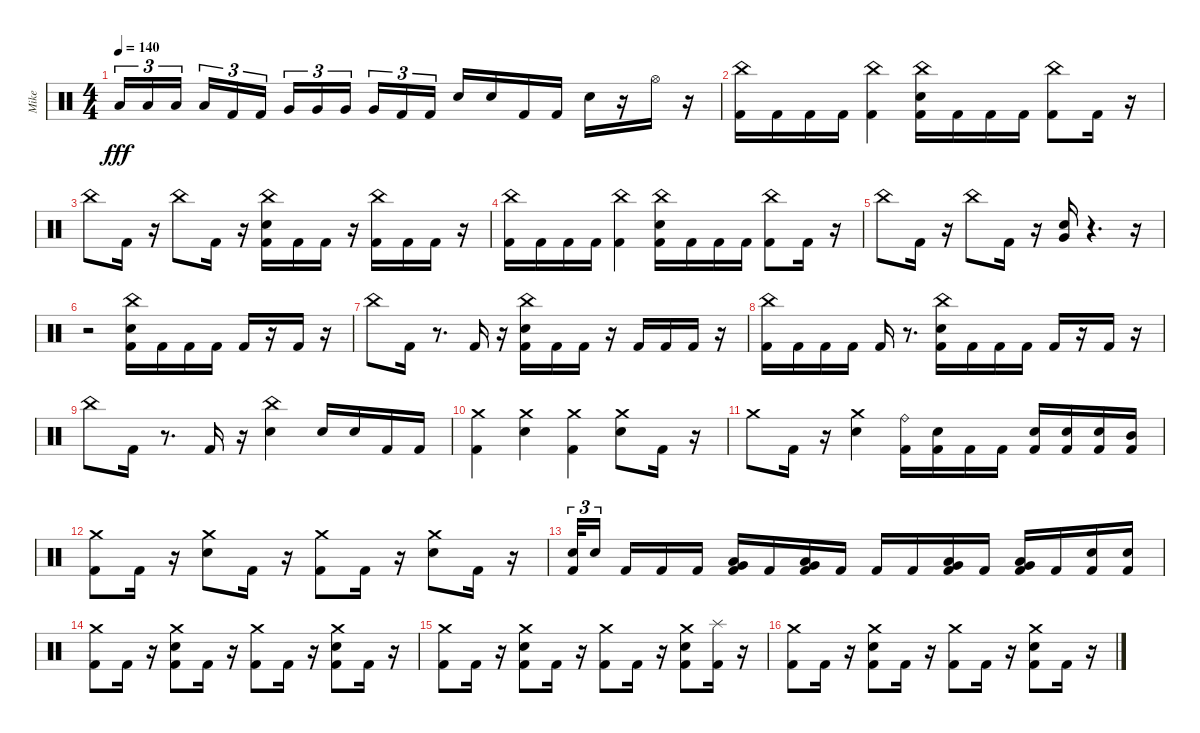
\track ("Mike" "Mike") {instrument percussion}
\staff {score}
\articulation defaults
\ts (4 4)
\tempo 140
\clef neutral
\ks c "Low Tom (hit)".16{tu (3 2) dy fff} "Low Tom (hit)".16{tu (3 2)} "Low Tom (hit)".16{tu (3 2) beam splitsecondary} "Low Tom (hit)".16{tu (3 2)} "Kick (hit) 2".16{tu (3 2)} "Kick (hit) 2".16{tu (3 2)} "Very Low Tom (hit)".16{tu (3 2)} "Very Low Tom (hit)".16{tu (3 2)} "Very Low Tom (hit)".16{tu (3 2) beam splitsecondary} "Very Low Tom (hit)".16{tu (3 2)} "Kick (hit) 2".16{tu (3 2)} "Kick (hit) 2".16{tu (3 2)} "Electric Snare (hit)".16 "Electric Snare (hit)".16 "Kick (hit) 2".16 "Kick (hit) 2".16 "Electric Snare (hit)".16
r.16 "Hi-Hat (open)".16 r.16 |
("Kick (hit) 2" "China (hit)").16 "Kick (hit) 2".16 "Kick (hit) 2".16 "Kick (hit) 2".16 ("Kick (hit) 2" "China (hit)").4 ("Kick (hit) 2" "Electric Snare (hit)" "China (hit)").16 "Kick (hit) 2".16 "Kick (hit) 2".16 "Kick (hit) 2".16 ("Kick (hit) 2" "China (hit)").8 "Kick (hit) 2".16 r.16 |
"China (hit)".8 "Kick (hit) 2".16 r.16 "China (hit)".8 "Kick (hit) 2".16 r.16 ("Kick (hit) 2" "Electric Snare (hit)" "China (hit)").16 "Kick (hit) 2".16 "Kick (hit) 2".16 r.16 ("Kick (hit) 2" "China (hit)").16 "Kick (hit) 2".16 "Kick (hit) 2".16 r.16 |
("Kick (hit) 2" "China (hit)").16 "Kick (hit) 2".16 "Kick (hit) 2".16 "Kick (hit) 2".16 ("Kick (hit) 2" "China (hit)").4 ("Kick (hit) 2" "Electric Snare (hit)" "China (hit)").16 "Kick (hit) 2".16 "Kick (hit) 2".16 "Kick (hit) 2".16 ("Kick (hit) 2" "China (hit)").8 "Kick (hit) 2".16 r.16 |
"China (hit)".8 "Kick (hit) 2".16 r.16 "China (hit)".8 "Kick (hit) 2".16 r.16 ("Electric Snare (hit)" "Very Low Tom (hit)").16 r.4{d} r.16 |
r.2 ("Kick (hit) 2" "Electric Snare (hit)" "China (hit)").16 "Kick (hit) 2".16 "Kick (hit) 2".16 "Kick (hit) 2".16 "Kick (hit) 2".16 r.16 "Kick (hit) 2".16 r.16 |
"China (hit)".8 "Kick (hit) 2".16 r.8{d} "Kick (hit) 2".16 r.16 ("Kick (hit) 2" "Electric Snare (hit)" "China (hit)").16 "Kick (hit) 2".16 "Kick (hit) 2".16 r.16 "Kick (hit) 2".16 "Kick (hit) 2".16 "Kick (hit) 2".16 r.16 |
("Kick (hit) 2" "China (hit)").16 "Kick (hit) 2".16 "Kick (hit) 2".16 "Kick (hit) 2".16 "Kick (hit) 2".16 r.8{d} ("Kick (hit) 2" "Electric Snare (hit)" "China (hit)").16 "Kick (hit) 2".16 "Kick (hit) 2".16 "Kick (hit) 2".16 "Kick (hit) 2".16 r.16 "Kick (hit) 2".16 r.16 |
"China (hit)".8 "Kick (hit) 2".16 r.8{d} "Kick (hit) 2".16 r.16 ("Electric Snare (hit)" "China (hit)").4 "Electric Snare (hit)".16 "Electric Snare (hit)".16 "Kick (hit) 2".16 "Kick (hit) 2".16 |
("Kick (hit) 2" "Crash medium (hit)").4 ("Electric Snare (hit)" "Crash medium (hit)").4 ("Kick (hit) 2" "Crash medium (hit)").4 ("Electric Snare (hit)" "Crash medium (hit)").8 "Kick (hit) 2".16 r.16 |
"Crash medium (hit)".8 "Kick (hit) 2".16 r.16 ("Electric Snare (hit)" "Crash medium (hit)").4 ("Kick (hit) 2" "Ride (bell)").16 ("Kick (hit) 2" "Electric Snare (hit)").16 "Kick (hit) 2".16 "Kick (hit) 2".16 ("Kick (hit) 2" "Electric Snare (hit)").16 ("Kick (hit) 2" "Electric Snare (hit)").16 ("Kick (hit) 2" "Electric Snare (hit)").16 ("Kick (hit) 2" "Mid Tom (hit)").16 |
("Kick (hit) 2" "Crash medium (hit)").8 "Kick (hit) 2".16 r.16 ("Electric Snare (hit)" "Crash medium (hit)").8 "Kick (hit) 2".16 r.16 ("Kick (hit) 2" "Crash medium (hit)").8 "Kick (hit) 2".16 r.16 ("Electric Snare (hit)" "Crash medium (hit)").8 "Kick (hit) 2".16 r.16 |
("Kick (hit) 2" "Electric Snare (hit)").32{tu (3 2)} "Electric Snare (hit)".16{tu (3 2) beam splitsecondary} "Kick (hit) 2".16 "Kick (hit) 2".16 "Kick (hit) 2".16 ("Kick (hit) 2" "Low Tom (hit)" "Very Low Tom (hit)").16 "Kick (hit) 2".16 ("Kick (hit) 2" "Low Tom (hit)" "Very Low Tom (hit)").16 "Kick (hit) 2".16 "Kick (hit) 2".16 "Kick (hit) 2".16 ("Kick (hit) 2" "Low Tom (hit)" "Very Low Tom (hit)").16 "Kick (hit) 2".16 ("Kick (hit) 2" "Low Tom (hit)" "Very Low Tom (hit)").16 "Kick (hit) 2".16 ("Kick (hit) 2" "Electric Snare (hit)").16 ("Kick (hit) 2" "Electric Snare (hit)").16 |
("Kick (hit) 2" "Crash medium (hit)").8 "Kick (hit) 2".16 r.16 ("Kick (hit) 2" "Electric Snare (hit)" "Crash medium (hit)").8 "Kick (hit) 2".16 r.16 ("Kick (hit) 2" "Crash medium (hit)").8 "Kick (hit) 2".16 r.16 ("Kick (hit) 2" "Electric Snare (hit)" "Crash medium (hit)").8 "Kick (hit) 2".16 r.16 |
("Kick (hit) 2" "Crash medium (hit)").8 "Kick (hit) 2".16 r.16 ("Kick (hit) 2" "Electric Snare (hit)" "Crash medium (hit)").8 "Kick (hit) 2".16 r.16 ("Kick (hit) 2" "Crash medium (hit)").8 "Kick (hit) 2".16 r.16 ("Kick (hit) 2" "Electric Snare (hit)" "Crash medium (hit)").8 ("Kick (hit) 2" "Splash (hit)").16 r.16 |
("Kick (hit) 2" "Crash medium (hit)").8 "Kick (hit) 2".16 r.16 ("Kick (hit) 2" "Electric Snare (hit)" "Crash medium (hit)").8 "Kick (hit) 2".16 r.16 ("Kick (hit) 2" "Crash medium (hit)").8 "Kick (hit) 2".16 r.16 ("Kick (hit) 2" "Electric Snare (hit)" "Crash medium (hit)").8 "Kick (hit) 2".16 r.16
